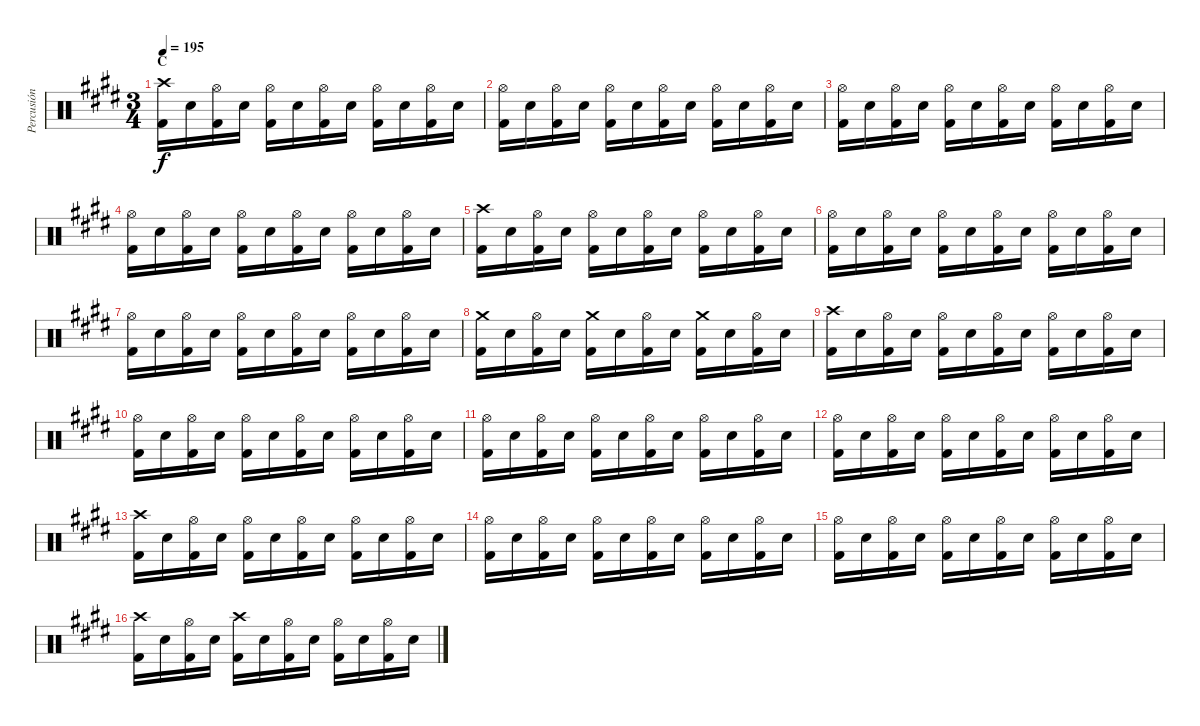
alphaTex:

\track ("Percusión" "Percusión") {instrument percussion}
\staff {score}
\articulation defaults
\ts (3 4)
\section ("" "C")
\tempo 195
\clef neutral
\ks e
("Crash high (hit)" "Kick (hit) 2").16{dy f} "Electric Snare (hit)".16 ("Hi-Hat (open)" "Kick (hit) 2").16 "Electric Snare (hit)".16 ("Hi-Hat (open)" "Kick (hit) 2").16 "Electric Snare (hit)".16 ("Hi-Hat (open)" "Kick (hit) 2").16 "Electric Snare (hit)".16 ("Hi-Hat (open)" "Kick (hit) 2").16 "Electric Snare (hit)".16 ("Hi-Hat (open)" "Kick (hit) 2").16 "Electric Snare (hit)".16 |
("Hi-Hat (open)" "Kick (hit) 2").16 "Electric Snare (hit)".16 ("Hi-Hat (open)" "Kick (hit) 2").16 "Electric Snare (hit)".16 ("Hi-Hat (open)" "Kick (hit) 2").16 "Electric Snare (hit)".16 ("Hi-Hat (open)" "Kick (hit) 2").16 "Electric Snare (hit)".16 ("Hi-Hat (open)" "Kick (hit) 2").16 "Electric Snare (hit)".16 ("Hi-Hat (open)" "Kick (hit) 2").16 "Electric Snare (hit)".16 |
("Hi-Hat (open)" "Kick (hit) 2").16 "Electric Snare (hit)".16 ("Hi-Hat (open)" "Kick (hit) 2").16 "Electric Snare (hit)".16 ("Hi-Hat (open)" "Kick (hit) 2").16 "Electric Snare (hit)".16 ("Hi-Hat (open)" "Kick (hit) 2").16 "Electric Snare (hit)".16 ("Hi-Hat (open)" "Kick (hit) 2").16 "Electric Snare (hit)".16 ("Hi-Hat (open)" "Kick (hit) 2").16 "Electric Snare (hit)".16 |
("Hi-Hat (open)" "Kick (hit) 2").16 "Electric Snare (hit)".16 ("Hi-Hat (open)" "Kick (hit) 2").16 "Electric Snare (hit)".16 ("Hi-Hat (open)" "Kick (hit) 2").16 "Electric Snare (hit)".16 ("Hi-Hat (open)" "Kick (hit) 2").16 "Electric Snare (hit)".16 ("Hi-Hat (open)" "Kick (hit) 2").16 "Electric Snare (hit)".16 ("Hi-Hat (open)" "Kick (hit) 2").16 "Electric Snare (hit)".16 |
("Crash high (hit)" "Kick (hit) 2").16 "Electric Snare (hit)".16 ("Hi-Hat (open)" "Kick (hit) 2").16 "Electric Snare (hit)".16 ("Hi-Hat (open)" "Kick (hit) 2").16 "Electric Snare (hit)".16 ("Hi-Hat (open)" "Kick (hit) 2").16 "Electric Snare (hit)".16 ("Hi-Hat (open)" "Kick (hit) 2").16 "Electric Snare (hit)".16 ("Hi-Hat (open)" "Kick (hit) 2").16 "Electric Snare (hit)".16 |
("Hi-Hat (open)" "Kick (hit) 2").16 "Electric Snare (hit)".16 ("Hi-Hat (open)" "Kick (hit) 2").16 "Electric Snare (hit)".16 ("Hi-Hat (open)" "Kick (hit) 2").16 "Electric Snare (hit)".16 ("Hi-Hat (open)" "Kick (hit) 2").16 "Electric Snare (hit)".16 ("Hi-Hat (open)" "Kick (hit) 2").16 "Electric Snare (hit)".16 ("Hi-Hat (open)" "Kick (hit) 2").16 "Electric Snare (hit)".16 |
("Hi-Hat (open)" "Kick (hit) 2").16 "Electric Snare (hit)".16 ("Hi-Hat (open)" "Kick (hit) 2").16 "Electric Snare (hit)".16 ("Hi-Hat (open)" "Kick (hit) 2").16 "Electric Snare (hit)".16 ("Hi-Hat (open)" "Kick (hit) 2").16 "Electric Snare (hit)".16 ("Hi-Hat (open)" "Kick (hit) 2").16 "Electric Snare (hit)".16 ("Hi-Hat (open)" "Kick (hit) 2").16 "Electric Snare (hit)".16 |
("Crash medium (hit)" "Kick (hit) 2").16 "Electric Snare (hit)".16 ("Hi-Hat (open)" "Kick (hit) 2").16 "Electric Snare (hit)".16 ("Crash medium (hit)" "Kick (hit) 2").16 "Electric Snare (hit)".16 ("Hi-Hat (open)" "Kick (hit) 2").16 "Electric Snare (hit)".16 ("Crash medium (hit)" "Kick (hit) 2").16 "Electric Snare (hit)".16 ("Hi-Hat (open)" "Kick (hit) 2").16 "Electric Snare (hit)".16 |
("Crash high (hit)" "Kick (hit) 2").16 "Electric Snare (hit)".16 ("Hi-Hat (open)" "Kick (hit) 2").16 "Electric Snare (hit)".16 ("Hi-Hat (open)" "Kick (hit) 2").16 "Electric Snare (hit)".16 ("Hi-Hat (open)" "Kick (hit) 2").16 "Electric Snare (hit)".16 ("Hi-Hat (open)" "Kick (hit) 2").16 "Electric Snare (hit)".16 ("Hi-Hat (open)" "Kick (hit) 2").16 "Electric Snare (hit)".16 |
("Hi-Hat (open)" "Kick (hit) 2").16 "Electric Snare (hit)".16 ("Hi-Hat (open)" "Kick (hit) 2").16 "Electric Snare (hit)".16 ("Hi-Hat (open)" "Kick (hit) 2").16 "Electric Snare (hit)".16 ("Hi-Hat (open)" "Kick (hit) 2").16 "Electric Snare (hit)".16 ("Hi-Hat (open)" "Kick (hit) 2").16 "Electric Snare (hit)".16 ("Hi-Hat (open)" "Kick (hit) 2").16 "Electric Snare (hit)".16 |
("Hi-Hat (open)" "Kick (hit) 2").16 "Electric Snare (hit)".16 ("Hi-Hat (open)" "Kick (hit) 2").16 "Electric Snare (hit)".16 ("Hi-Hat (open)" "Kick (hit) 2").16 "Electric Snare (hit)".16 ("Hi-Hat (open)" "Kick (hit) 2").16 "Electric Snare (hit)".16 ("Hi-Hat (open)" "Kick (hit) 2").16 "Electric Snare (hit)".16 ("Hi-Hat (open)" "Kick (hit) 2").16 "Electric Snare (hit)".16 |
("Hi-Hat (open)" "Kick (hit) 2").16 "Electric Snare (hit)".16 ("Hi-Hat (open)" "Kick (hit) 2").16 "Electric Snare (hit)".16 ("Hi-Hat (open)" "Kick (hit) 2").16 "Electric Snare (hit)".16 ("Hi-Hat (open)" "Kick (hit) 2").16 "Electric Snare (hit)".16 ("Hi-Hat (open)" "Kick (hit) 2").16 "Electric Snare (hit)".16 ("Hi-Hat (open)" "Kick (hit) 2").16 "Electric Snare (hit)".16 |
("Crash high (hit)" "Kick (hit) 2").16 "Electric Snare (hit)".16 ("Hi-Hat (open)" "Kick (hit) 2").16 "Electric Snare (hit)".16 ("Hi-Hat (open)" "Kick (hit) 2").16 "Electric Snare (hit)".16 ("Hi-Hat (open)" "Kick (hit) 2").16 "Electric Snare (hit)".16 ("Hi-Hat (open)" "Kick (hit) 2").16 "Electric Snare (hit)".16 ("Hi-Hat (open)" "Kick (hit) 2").16 "Electric Snare (hit)".16 |
("Hi-Hat (open)" "Kick (hit) 2").16 "Electric Snare (hit)".16 ("Hi-Hat (open)" "Kick (hit) 2").16 "Electric Snare (hit)".16 ("Hi-Hat (open)" "Kick (hit) 2").16 "Electric Snare (hit)".16 ("Hi-Hat (open)" "Kick (hit) 2").16 "Electric Snare (hit)".16 ("Hi-Hat (open)" "Kick (hit) 2").16 "Electric Snare (hit)".16 ("Hi-Hat (open)" "Kick (hit) 2").16 "Electric Snare (hit)".16 |
("Hi-Hat (open)" "Kick (hit) 2").16 "Electric Snare (hit)".16 ("Hi-Hat (open)" "Kick (hit) 2").16 "Electric Snare (hit)".16 ("Hi-Hat (open)" "Kick (hit) 2").16 "Electric Snare (hit)".16 ("Hi-Hat (open)" "Kick (hit) 2").16 "Electric Snare (hit)".16 ("Hi-Hat (open)" "Kick (hit) 2").16 "Electric Snare (hit)".16 ("Hi-Hat (open)" "Kick (hit) 2").16 "Electric Snare (hit)".16 |
("Crash high (hit)" "Kick (hit) 2").16 "Electric Snare (hit)".16 ("Hi-Hat (open)" "Kick (hit) 2").16 "Electric Snare (hit)".16 ("Crash high (hit)" "Kick (hit) 2").16 "Electric Snare (hit)".16 ("Hi-Hat (open)" "Kick (hit) 2").16 "Electric Snare (hit)".16 ("Hi-Hat (open)" "Kick (hit) 2").16 "Electric Snare (hit)".16 ("Hi-Hat (open)" "Kick (hit) 2").16 "Electric Snare (hit)".16
